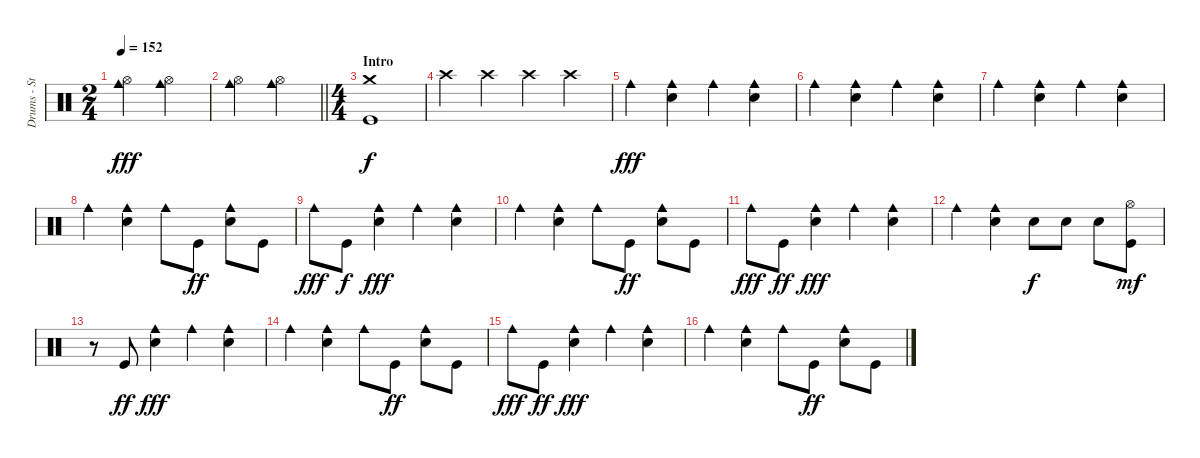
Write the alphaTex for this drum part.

\track ("Drums - Steven Adler" "Drums - St") {instrument percussion}
\staff {score}
\articulation defaults
\ts (2 4)
\tempo 152
\clef neutral
\ks c
("Hi-Hat (open)" "Cowbell medium (hit)").4{dy fff} ("Hi-Hat (open)" "Cowbell medium (hit)").4 |
\barLineRight lightlight
("Hi-Hat (open)" "Cowbell medium (hit)").4 ("Hi-Hat (open)" "Cowbell medium (hit)").4 |
\ts (4 4)
\section ("" "Intro")
("Crash medium (hit)" "Kick (hit)").1{dy f} |
"Crash high (hit)".4 "Crash high (hit)".4 "Crash high (hit)".4 "Crash high (hit)".4 |
"Cowbell medium (hit)".4{dy fff} ("Cowbell medium (hit)" "Snare (hit) 2").4 "Cowbell medium (hit)".4 ("Cowbell medium (hit)" "Snare (hit) 2").4 |
"Cowbell medium (hit)".4 ("Cowbell medium (hit)" "Snare (hit) 2").4 "Cowbell medium (hit)".4 ("Cowbell medium (hit)" "Snare (hit) 2").4 |
"Cowbell medium (hit)".4 ("Cowbell medium (hit)" "Snare (hit) 2").4 "Cowbell medium (hit)".4 ("Cowbell medium (hit)" "Snare (hit) 2").4 |
"Cowbell medium (hit)".4 ("Cowbell medium (hit)" "Snare (hit) 2").4 "Cowbell medium (hit)".8 "Kick (hit)".8{dy ff} ("Cowbell medium (hit)" "Snare (hit) 2").8 "Kick (hit)".8 |
"Cowbell medium (hit)".8{dy fff} "Kick (hit)".8{dy f} ("Cowbell medium (hit)" "Snare (hit) 2").4{dy fff} "Cowbell medium (hit)".4 ("Cowbell medium (hit)" "Snare (hit) 2").4 |
"Cowbell medium (hit)".4 ("Cowbell medium (hit)" "Snare (hit) 2").4 "Cowbell medium (hit)".8 "Kick (hit)".8{dy ff} ("Cowbell medium (hit)" "Snare (hit) 2").8 "Kick (hit)".8 |
"Cowbell medium (hit)".8{dy fff} "Kick (hit)".8{dy ff} ("Cowbell medium (hit)" "Snare (hit) 2").4{dy fff} "Cowbell medium (hit)".4 ("Cowbell medium (hit)" "Snare (hit) 2").4 |
"Cowbell medium (hit)".4 ("Cowbell medium (hit)" "Snare (hit) 2").4 "Snare (hit) 2".8{dy f} "Snare (hit) 2".8 "Snare (hit) 2".8 ("Hi-Hat (open)" "Kick (hit)").8{dy mf} |
r.8 "Kick (hit)".8{dy ff} ("Cowbell medium (hit)" "Snare (hit) 2").4{dy fff} "Cowbell medium (hit)".4 ("Cowbell medium (hit)" "Snare (hit) 2").4 |
"Cowbell medium (hit)".4 ("Cowbell medium (hit)" "Snare (hit) 2").4 "Cowbell medium (hit)".8 "Kick (hit)".8{dy ff} ("Cowbell medium (hit)" "Snare (hit) 2").8 "Kick (hit)".8 |
"Cowbell medium (hit)".8{dy fff} "Kick (hit)".8{dy ff} ("Cowbell medium (hit)" "Snare (hit) 2").4{dy fff} "Cowbell medium (hit)".4 ("Cowbell medium (hit)" "Snare (hit) 2").4 |
"Cowbell medium (hit)".4 ("Cowbell medium (hit)" "Snare (hit) 2").4 "Cowbell medium (hit)".8 "Kick (hit)".8{dy ff} ("Cowbell medium (hit)" "Snare (hit) 2").8 "Kick (hit)".8
